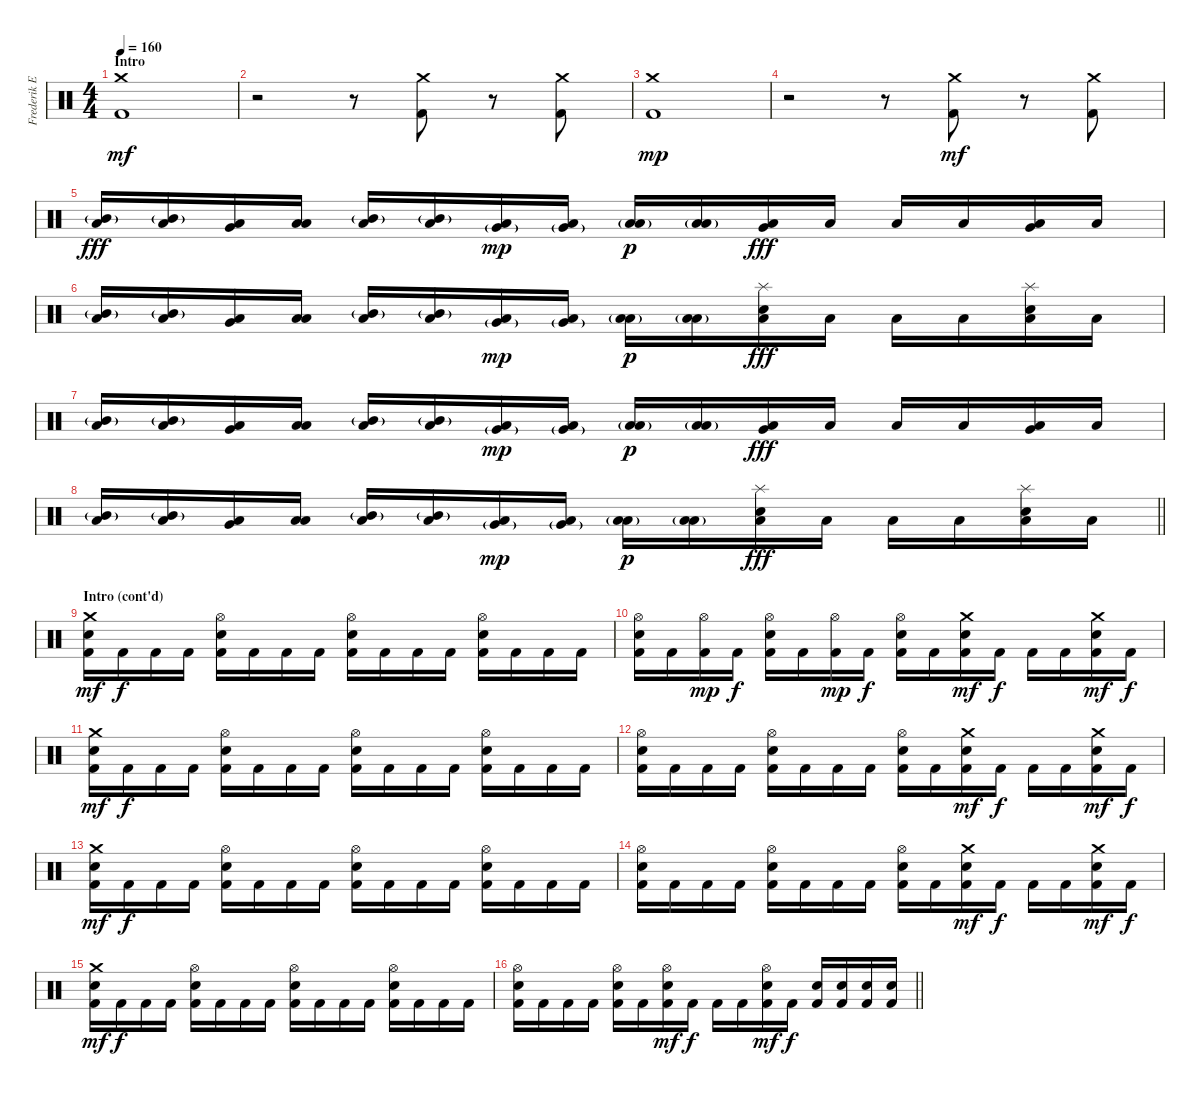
\track ("Frederik Ehmke" "Frederik E") {instrument percussion}
\staff {score}
\articulation defaults
\ts (4 4)
\section ("" "Intro")
\tempo 160
\tempo 157
\tempo 160
\clef neutral
\ks c
("Crash medium (hit)" "Kick (hit) 2").1{dy mf} |
r.2 r.8 ("Crash medium (hit)" "Kick (hit) 2").8 r.8 ("Crash medium (hit)" "Kick (hit) 2").8 |
("Crash medium (hit)" "Kick (hit) 2").1{dy mp} |
r.2 r.8 ("Crash medium (hit)" "Kick (hit) 2").8{dy mf} r.8 ("Crash medium (hit)" "Kick (hit) 2").8 |
("Mid Tom (hit)"{g} "Low Tom (hit)").16{dy fff} ("Mid Tom (hit)"{g} "Low Tom (hit)").16 ("Low Tom (hit)" "Very Low Tom (hit)").16 ("Low Tom (hit)" "Low Floor Tom (hit)").16 ("Mid Tom (hit)"{g} "Low Tom (hit)").16 ("Mid Tom (hit)"{g} "Low Tom (hit)").16 ("Low Tom (hit)" "Very Low Tom (hit)"{g}).16{dy mp} ("Low Tom (hit)" "Very Low Tom (hit)"{g}).16 ("Low Tom (hit)" "Low Floor Tom (hit)"{g}).16{dy p} ("Low Tom (hit)" "Low Floor Tom (hit)"{g}).16 ("Low Tom (hit)" "Very Low Tom (hit)").16{dy fff} "Low Tom (hit)".16 "Low Tom (hit)".16 "Low Tom (hit)".16 ("Low Tom (hit)" "Very Low Tom (hit)").16 "Low Tom (hit)".16 |
("Mid Tom (hit)"{g} "Low Tom (hit)").16 ("Mid Tom (hit)"{g} "Low Tom (hit)").16 ("Low Tom (hit)" "Very Low Tom (hit)").16 ("Low Tom (hit)" "Low Floor Tom (hit)").16 ("Mid Tom (hit)"{g} "Low Tom (hit)").16 ("Mid Tom (hit)"{g} "Low Tom (hit)").16 ("Low Tom (hit)" "Very Low Tom (hit)"{g}).16{dy mp} ("Low Tom (hit)" "Very Low Tom (hit)"{g}).16 ("Low Tom (hit)" "Low Floor Tom (hit)"{g}).16{dy p} ("Low Tom (hit)" "Low Floor Tom (hit)"{g}).16 ("Splash (hit)" "Low Tom (hit)" "Electric Snare (hit)").16{dy fff} "Low Tom (hit)".16 "Low Tom (hit)".16 "Low Tom (hit)".16 ("Splash (hit)" "Low Tom (hit)" "Electric Snare (hit)").16 "Low Tom (hit)".16 |
("Mid Tom (hit)"{g} "Low Tom (hit)").16 ("Mid Tom (hit)"{g} "Low Tom (hit)").16 ("Low Tom (hit)" "Very Low Tom (hit)").16 ("Low Tom (hit)" "Low Floor Tom (hit)").16 ("Mid Tom (hit)"{g} "Low Tom (hit)").16 ("Mid Tom (hit)"{g} "Low Tom (hit)").16 ("Low Tom (hit)" "Very Low Tom (hit)"{g}).16{dy mp} ("Low Tom (hit)" "Very Low Tom (hit)"{g}).16 ("Low Tom (hit)" "Low Floor Tom (hit)"{g}).16{dy p} ("Low Tom (hit)" "Low Floor Tom (hit)"{g}).16 ("Low Tom (hit)" "Very Low Tom (hit)").16{dy fff} "Low Tom (hit)".16 "Low Tom (hit)".16 "Low Tom (hit)".16 ("Low Tom (hit)" "Very Low Tom (hit)").16 "Low Tom (hit)".16 |
\barLineRight lightlight
("Mid Tom (hit)"{g} "Low Tom (hit)").16 ("Mid Tom (hit)"{g} "Low Tom (hit)").16 ("Low Tom (hit)" "Very Low Tom (hit)").16 ("Low Tom (hit)" "Low Floor Tom (hit)").16 ("Mid Tom (hit)"{g} "Low Tom (hit)").16 ("Mid Tom (hit)"{g} "Low Tom (hit)").16 ("Low Tom (hit)" "Very Low Tom (hit)"{g}).16{dy mp} ("Low Tom (hit)" "Very Low Tom (hit)"{g}).16 ("Low Tom (hit)" "Low Floor Tom (hit)"{g}).16{dy p} ("Low Tom (hit)" "Low Floor Tom (hit)"{g}).16 ("Splash (hit)" "Low Tom (hit)" "Electric Snare (hit)").16{dy fff} "Low Tom (hit)".16 "Low Tom (hit)".16 "Low Tom (hit)".16 ("Splash (hit)" "Low Tom (hit)" "Electric Snare (hit)").16 "Low Tom (hit)".16 |
\section ("" "Intro (cont'd)")
("Crash medium (hit)" "Electric Snare (hit)" "Kick (hit) 2").16{dy mf} "Kick (hit) 2".16{dy f} "Kick (hit) 2".16 "Kick (hit) 2".16 ("Hi-Hat (open)" "Electric Snare (hit)" "Kick (hit) 2").16 "Kick (hit) 2".16 "Kick (hit) 2".16 "Kick (hit) 2".16 ("Hi-Hat (open)" "Electric Snare (hit)" "Kick (hit) 2").16 "Kick (hit) 2".16 "Kick (hit) 2".16 "Kick (hit) 2".16 ("Hi-Hat (open)" "Electric Snare (hit)" "Kick (hit) 2").16 "Kick (hit) 2".16 "Kick (hit) 2".16 "Kick (hit) 2".16 |
("Hi-Hat (open)" "Electric Snare (hit)" "Kick (hit) 2").16 "Kick (hit) 2".16 ("Hi-Hat (open)" "Kick (hit) 2").16{dy mp} "Kick (hit) 2".16{dy f} ("Hi-Hat (open)" "Electric Snare (hit)" "Kick (hit) 2").16 "Kick (hit) 2".16 ("Hi-Hat (open)" "Kick (hit) 2").16{dy mp} "Kick (hit) 2".16{dy f} ("Hi-Hat (open)" "Electric Snare (hit)" "Kick (hit) 2").16 "Kick (hit) 2".16 ("Crash medium (hit)" "Electric Snare (hit)" "Kick (hit) 2").16{dy mf} "Kick (hit) 2".16{dy f} "Kick (hit) 2".16 "Kick (hit) 2".16 ("Crash medium (hit)" "Electric Snare (hit)" "Kick (hit) 2").16{dy mf} "Kick (hit) 2".16{dy f} |
("Crash medium (hit)" "Electric Snare (hit)" "Kick (hit) 2").16{dy mf} "Kick (hit) 2".16{dy f} "Kick (hit) 2".16 "Kick (hit) 2".16 ("Hi-Hat (open)" "Electric Snare (hit)" "Kick (hit) 2").16 "Kick (hit) 2".16 "Kick (hit) 2".16 "Kick (hit) 2".16 ("Hi-Hat (open)" "Electric Snare (hit)" "Kick (hit) 2").16 "Kick (hit) 2".16 "Kick (hit) 2".16 "Kick (hit) 2".16 ("Hi-Hat (open)" "Electric Snare (hit)" "Kick (hit) 2").16 "Kick (hit) 2".16 "Kick (hit) 2".16 "Kick (hit) 2".16 |
("Hi-Hat (open)" "Electric Snare (hit)" "Kick (hit) 2").16 "Kick (hit) 2".16 "Kick (hit) 2".16 "Kick (hit) 2".16 ("Hi-Hat (open)" "Electric Snare (hit)" "Kick (hit) 2").16 "Kick (hit) 2".16 "Kick (hit) 2".16 "Kick (hit) 2".16 ("Hi-Hat (open)" "Electric Snare (hit)" "Kick (hit) 2").16 "Kick (hit) 2".16 ("Crash medium (hit)" "Electric Snare (hit)" "Kick (hit) 2").16{dy mf} "Kick (hit) 2".16{dy f} "Kick (hit) 2".16 "Kick (hit) 2".16 ("Crash medium (hit)" "Electric Snare (hit)" "Kick (hit) 2").16{dy mf} "Kick (hit) 2".16{dy f} |
("Crash medium (hit)" "Electric Snare (hit)" "Kick (hit) 2").16{dy mf} "Kick (hit) 2".16{dy f} "Kick (hit) 2".16 "Kick (hit) 2".16 ("Hi-Hat (open)" "Electric Snare (hit)" "Kick (hit) 2").16 "Kick (hit) 2".16 "Kick (hit) 2".16 "Kick (hit) 2".16 ("Hi-Hat (open)" "Electric Snare (hit)" "Kick (hit) 2").16 "Kick (hit) 2".16 "Kick (hit) 2".16 "Kick (hit) 2".16 ("Hi-Hat (open)" "Electric Snare (hit)" "Kick (hit) 2").16 "Kick (hit) 2".16 "Kick (hit) 2".16 "Kick (hit) 2".16 |
("Hi-Hat (open)" "Electric Snare (hit)" "Kick (hit) 2").16 "Kick (hit) 2".16 "Kick (hit) 2".16 "Kick (hit) 2".16 ("Hi-Hat (open)" "Electric Snare (hit)" "Kick (hit) 2").16 "Kick (hit) 2".16 "Kick (hit) 2".16 "Kick (hit) 2".16 ("Hi-Hat (open)" "Electric Snare (hit)" "Kick (hit) 2").16 "Kick (hit) 2".16 ("Crash medium (hit)" "Electric Snare (hit)" "Kick (hit) 2").16{dy mf} "Kick (hit) 2".16{dy f} "Kick (hit) 2".16 "Kick (hit) 2".16 ("Crash medium (hit)" "Electric Snare (hit)" "Kick (hit) 2").16{dy mf} "Kick (hit) 2".16{dy f} |
("Crash medium (hit)" "Electric Snare (hit)" "Kick (hit) 2").16{dy mf} "Kick (hit) 2".16{dy f} "Kick (hit) 2".16 "Kick (hit) 2".16 ("Hi-Hat (open)" "Electric Snare (hit)" "Kick (hit) 2").16 "Kick (hit) 2".16 "Kick (hit) 2".16 "Kick (hit) 2".16 ("Hi-Hat (open)" "Electric Snare (hit)" "Kick (hit) 2").16 "Kick (hit) 2".16 "Kick (hit) 2".16 "Kick (hit) 2".16 ("Hi-Hat (open)" "Electric Snare (hit)" "Kick (hit) 2").16 "Kick (hit) 2".16 "Kick (hit) 2".16 "Kick (hit) 2".16 |
\barLineRight lightlight
("Hi-Hat (open)" "Electric Snare (hit)" "Kick (hit) 2").16 "Kick (hit) 2".16 "Kick (hit) 2".16 "Kick (hit) 2".16 ("Hi-Hat (open)" "Electric Snare (hit)" "Kick (hit) 2").16 "Kick (hit) 2".16 ("Hi-Hat (open)" "Electric Snare (hit)" "Kick (hit) 2").16{dy mf} "Kick (hit) 2".16{dy f} "Kick (hit) 2".16 "Kick (hit) 2".16 ("Hi-Hat (open)" "Electric Snare (hit)" "Kick (hit) 2").16{dy mf} "Kick (hit) 2".16{dy f} ("Electric Snare (hit)" "Kick (hit) 2").16 ("Electric Snare (hit)" "Kick (hit) 2").16 ("Electric Snare (hit)" "Kick (hit) 2").16 ("Electric Snare (hit)" "Kick (hit) 2").16
